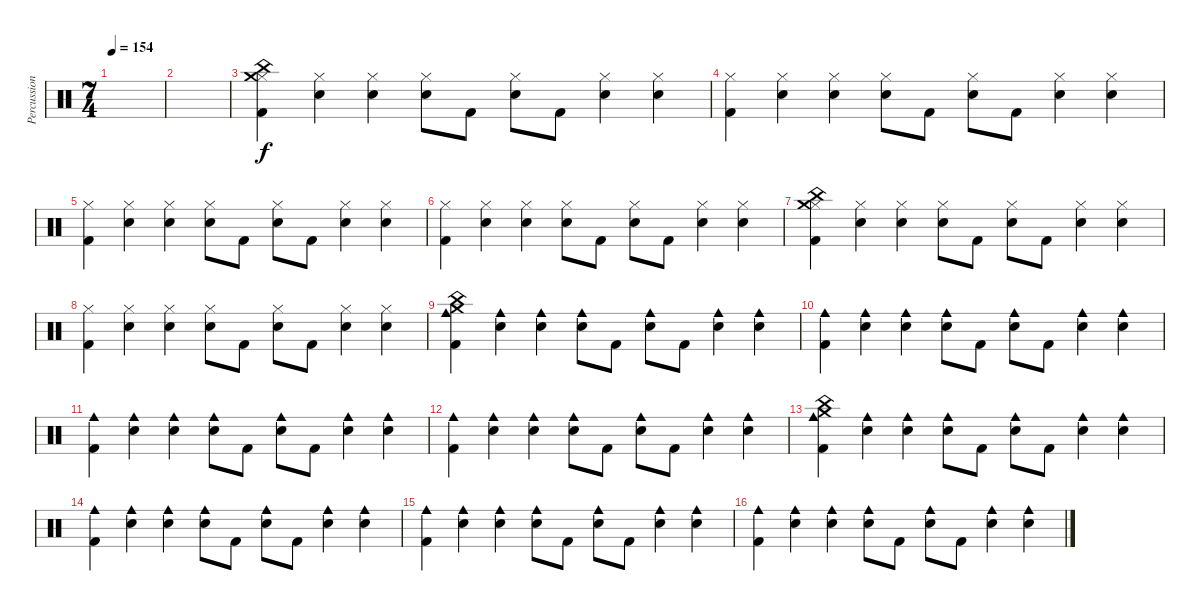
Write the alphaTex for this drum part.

\track ("Percussion" "Percussion") {instrument percussion}
\staff {score}
\articulation defaults
\ts (7 4)
\tempo 154
\clef neutral
\ks c
|
|
("China (hit)" "Hi-Hat (closed)" "Crash medium (hit)" "Kick (hit) 2").4 ("Hi-Hat (closed)" "Snare (hit) 2").4 ("Hi-Hat (closed)" "Snare (hit) 2").4 ("Hi-Hat (closed)" "Snare (hit) 2").8 "Kick (hit) 2".8 ("Hi-Hat (closed)" "Snare (hit) 2").8 "Kick (hit) 2".8 ("Hi-Hat (closed)" "Snare (hit) 2").4 ("Hi-Hat (closed)" "Snare (hit) 2").4 |
("Hi-Hat (closed)" "Kick (hit) 2").4 ("Hi-Hat (closed)" "Snare (hit) 2").4 ("Hi-Hat (closed)" "Snare (hit) 2").4 ("Hi-Hat (closed)" "Snare (hit) 2").8 "Kick (hit) 2".8 ("Hi-Hat (closed)" "Snare (hit) 2").8 "Kick (hit) 2".8 ("Hi-Hat (closed)" "Snare (hit) 2").4 ("Hi-Hat (closed)" "Snare (hit) 2").4 |
("Hi-Hat (closed)" "Kick (hit) 2").4 ("Hi-Hat (closed)" "Snare (hit) 2").4 ("Hi-Hat (closed)" "Snare (hit) 2").4 ("Hi-Hat (closed)" "Snare (hit) 2").8 "Kick (hit) 2".8 ("Hi-Hat (closed)" "Snare (hit) 2").8 "Kick (hit) 2".8 ("Hi-Hat (closed)" "Snare (hit) 2").4 ("Hi-Hat (closed)" "Snare (hit) 2").4 |
("Hi-Hat (closed)" "Kick (hit) 2").4 ("Hi-Hat (closed)" "Snare (hit) 2").4 ("Hi-Hat (closed)" "Snare (hit) 2").4 ("Hi-Hat (closed)" "Snare (hit) 2").8 "Kick (hit) 2".8 ("Hi-Hat (closed)" "Snare (hit) 2").8 "Kick (hit) 2".8 ("Hi-Hat (closed)" "Snare (hit) 2").4 ("Hi-Hat (closed)" "Snare (hit) 2").4 |
("China (hit)" "Hi-Hat (closed)" "Crash medium (hit)" "Kick (hit) 2").4 ("Hi-Hat (closed)" "Snare (hit) 2").4 ("Hi-Hat (closed)" "Snare (hit) 2").4 ("Hi-Hat (closed)" "Snare (hit) 2").8 "Kick (hit) 2".8 ("Hi-Hat (closed)" "Snare (hit) 2").8 "Kick (hit) 2".8 ("Hi-Hat (closed)" "Snare (hit) 2").4 ("Hi-Hat (closed)" "Snare (hit) 2").4 |
("Hi-Hat (closed)" "Kick (hit) 2").4 ("Hi-Hat (closed)" "Snare (hit) 2").4 ("Hi-Hat (closed)" "Snare (hit) 2").4 ("Hi-Hat (closed)" "Snare (hit) 2").8 "Kick (hit) 2".8 ("Hi-Hat (closed)" "Snare (hit) 2").8 "Kick (hit) 2".8 ("Hi-Hat (closed)" "Snare (hit) 2").4 ("Hi-Hat (closed)" "Snare (hit) 2").4 |
("China (hit)" "Cowbell medium (hit)" "Crash medium (hit)" "Kick (hit) 2").4 ("Cowbell medium (hit)" "Snare (hit) 2").4 ("Cowbell medium (hit)" "Snare (hit) 2").4 ("Cowbell medium (hit)" "Snare (hit) 2").8 "Kick (hit) 2".8 ("Cowbell medium (hit)" "Snare (hit) 2").8 "Kick (hit) 2".8 ("Cowbell medium (hit)" "Snare (hit) 2").4 ("Cowbell medium (hit)" "Snare (hit) 2").4 |
("Cowbell medium (hit)" "Kick (hit) 2").4 ("Cowbell medium (hit)" "Snare (hit) 2").4 ("Cowbell medium (hit)" "Snare (hit) 2").4 ("Cowbell medium (hit)" "Snare (hit) 2").8 "Kick (hit) 2".8 ("Cowbell medium (hit)" "Snare (hit) 2").8 "Kick (hit) 2".8 ("Cowbell medium (hit)" "Snare (hit) 2").4 ("Cowbell medium (hit)" "Snare (hit) 2").4 |
("Cowbell medium (hit)" "Kick (hit) 2").4 ("Cowbell medium (hit)" "Snare (hit) 2").4 ("Cowbell medium (hit)" "Snare (hit) 2").4 ("Cowbell medium (hit)" "Snare (hit) 2").8 "Kick (hit) 2".8 ("Cowbell medium (hit)" "Snare (hit) 2").8 "Kick (hit) 2".8 ("Cowbell medium (hit)" "Snare (hit) 2").4 ("Cowbell medium (hit)" "Snare (hit) 2").4 |
("Cowbell medium (hit)" "Kick (hit) 2").4 ("Cowbell medium (hit)" "Snare (hit) 2").4 ("Cowbell medium (hit)" "Snare (hit) 2").4 ("Cowbell medium (hit)" "Snare (hit) 2").8 "Kick (hit) 2".8 ("Cowbell medium (hit)" "Snare (hit) 2").8 "Kick (hit) 2".8 ("Cowbell medium (hit)" "Snare (hit) 2").4 ("Cowbell medium (hit)" "Snare (hit) 2").4 |
("China (hit)" "Cowbell medium (hit)" "Crash medium (hit)" "Kick (hit) 2").4 ("Cowbell medium (hit)" "Snare (hit) 2").4 ("Cowbell medium (hit)" "Snare (hit) 2").4 ("Cowbell medium (hit)" "Snare (hit) 2").8 "Kick (hit) 2".8 ("Cowbell medium (hit)" "Snare (hit) 2").8 "Kick (hit) 2".8 ("Cowbell medium (hit)" "Snare (hit) 2").4 ("Cowbell medium (hit)" "Snare (hit) 2").4 |
("Cowbell medium (hit)" "Kick (hit) 2").4 ("Cowbell medium (hit)" "Snare (hit) 2").4 ("Cowbell medium (hit)" "Snare (hit) 2").4 ("Cowbell medium (hit)" "Snare (hit) 2").8 "Kick (hit) 2".8 ("Cowbell medium (hit)" "Snare (hit) 2").8 "Kick (hit) 2".8 ("Cowbell medium (hit)" "Snare (hit) 2").4 ("Cowbell medium (hit)" "Snare (hit) 2").4 |
("Cowbell medium (hit)" "Kick (hit) 2").4 ("Cowbell medium (hit)" "Snare (hit) 2").4 ("Cowbell medium (hit)" "Snare (hit) 2").4 ("Cowbell medium (hit)" "Snare (hit) 2").8 "Kick (hit) 2".8 ("Cowbell medium (hit)" "Snare (hit) 2").8 "Kick (hit) 2".8 ("Cowbell medium (hit)" "Snare (hit) 2").4 ("Cowbell medium (hit)" "Snare (hit) 2").4 |
("Cowbell medium (hit)" "Kick (hit) 2").4 ("Cowbell medium (hit)" "Snare (hit) 2").4 ("Cowbell medium (hit)" "Snare (hit) 2").4 ("Cowbell medium (hit)" "Snare (hit) 2").8 "Kick (hit) 2".8 ("Cowbell medium (hit)" "Snare (hit) 2").8 "Kick (hit) 2".8 ("Cowbell medium (hit)" "Snare (hit) 2").4 ("Cowbell medium (hit)" "Snare (hit) 2").4
